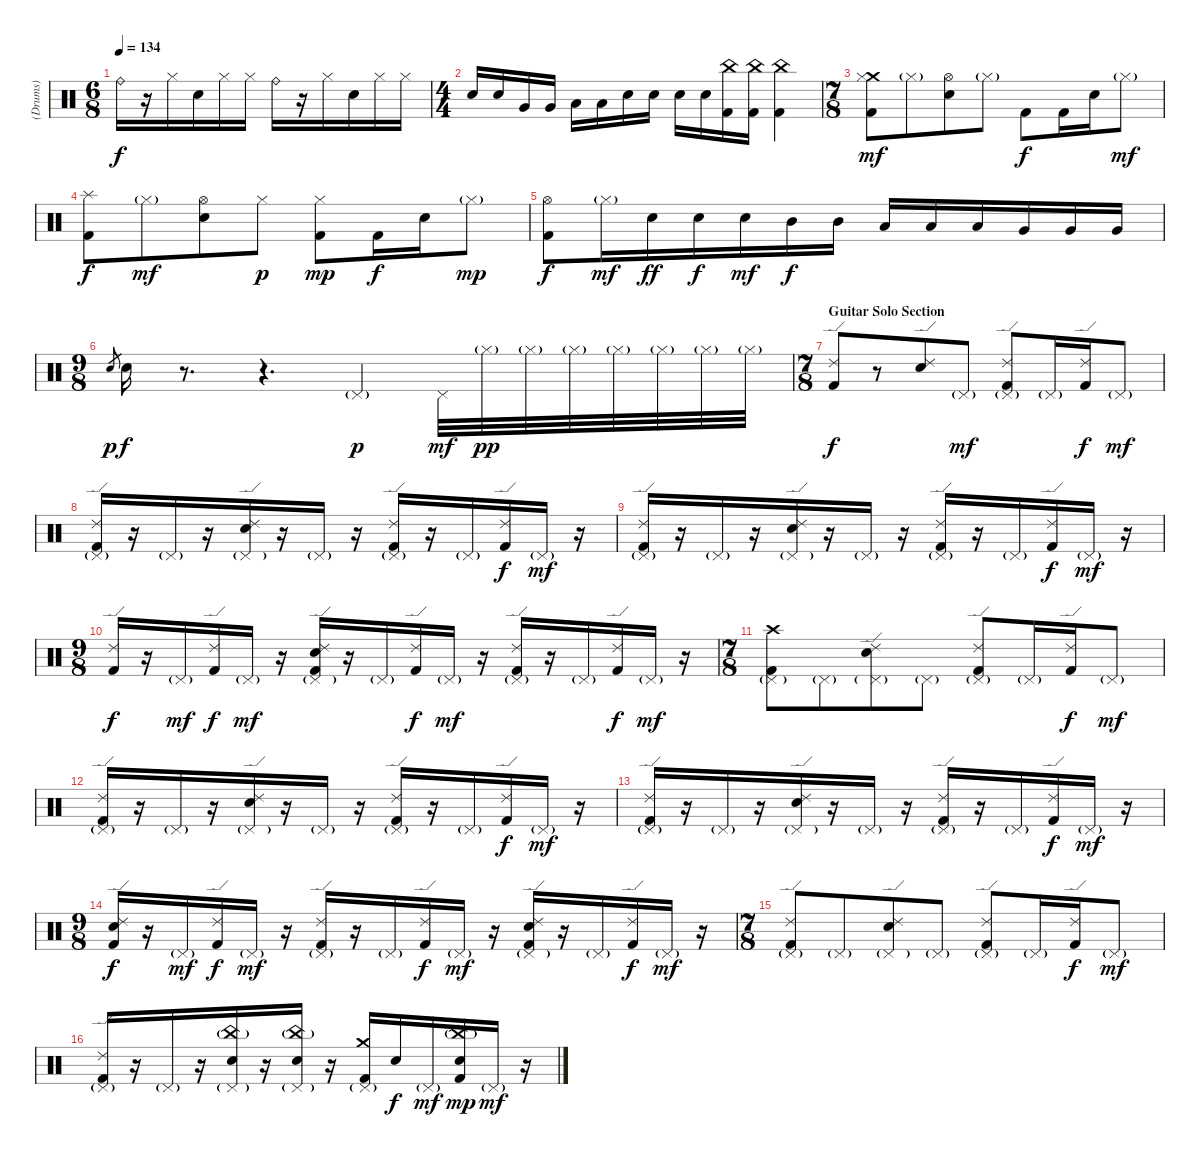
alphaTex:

\track ("(Drums)" "(Drums)") {instrument percussion}
\staff {score}
\articulation defaults
\ts (6 8)
\tempo 134
\clef neutral
\ks c "Ride (bell)".16{dy f}
r.16 "Hi-Hat (closed)".16 "Electric Snare (hit)".16 "Hi-Hat (closed)".16 "Hi-Hat (closed)".16 "Ride (bell)".16 r.16 "Hi-Hat (closed)".16 "Electric Snare (hit)".16 "Hi-Hat (closed)".16 "Hi-Hat (closed)".16 |
\ts (4 4)
"Electric Snare (hit)".16 "Electric Snare (hit)".16 "Very Low Tom (hit)".16 "Very Low Tom (hit)".16 "Low Tom (hit)".16 "Low Tom (hit)".16 "Electric Snare (hit)".16 "Electric Snare (hit)".16 "Electric Snare (hit)".16 "Electric Snare (hit)".16 ("China (hit)" "Kick (hit) 2").16 ("China (hit)" "Kick (hit) 2").16 ("China (hit)" "Kick (hit) 2").4 |
\ts (7 8)
("Crash medium (hit)" "Hi-Hat (closed)" "Kick (hit) 2").8{dy mf} "Hi-Hat (closed)"{g}.8 ("Hi-Hat (open)" "Electric Snare (hit)").8 "Hi-Hat (closed)"{g}.8 "Kick (hit) 2".8{dy f} "Kick (hit) 2".16 "Electric Snare (hit)".16 "Hi-Hat (closed)"{g}.8{dy mf} |
("Splash (hit)" "Kick (hit) 2").8{dy f} "Hi-Hat (closed)"{g}.8{dy mf} ("Hi-Hat (open)" "Electric Snare (hit)").8 "Hi-Hat (closed)".8{dy p} ("Hi-Hat (closed)" "Kick (hit) 2").8{dy mp} "Kick (hit) 2".16{dy f} "Electric Snare (hit)".16 "Hi-Hat (closed)"{g}.8{dy mp} |
("Hi-Hat (open)" "Kick (hit) 2").8{dy f} "Hi-Hat (closed)"{g}.16{dy mf} "Electric Snare (hit)".16{dy ff} "Electric Snare (hit)".16{dy f} "Electric Snare (hit)".16{dy mf} "Mid Tom (hit)".16{dy f} "Mid Tom (hit)".16 "Low Tom (hit)".16 "Low Tom (hit)".16 "Low Tom (hit)".16 "Very Low Tom (hit)".16 "Very Low Tom (hit)".16 "Very Low Tom (hit)".16 |
\ts (9 8)
"Electric Snare (hit)".8{gr dy p} "Electric Snare (hit)".16{dy f} r.8{d} r.4{d} "Pedal Hi-Hat (hit)"{g}.4{dy p} "Pedal Hi-Hat (hit)".32{dy mf} "Hi-Hat (closed)"{g}.32{dy pp} "Hi-Hat (closed)"{g}.32 "Hi-Hat (closed)"{g}.32 "Hi-Hat (closed)"{g}.32 "Hi-Hat (closed)"{g}.32 "Hi-Hat (closed)"{g}.32 "Hi-Hat (closed)"{g}.32 |
\ts (7 8)
\section ("" "Guitar Solo Section")
("Ride (edge) 2" "Kick (hit) 2").8{dy f volume 11} r.8 ("Ride (edge) 2" "Electric Snare (hit)").8 "Pedal Hi-Hat (hit)"{g}.8{dy mf} ("Ride (edge) 2" "Pedal Hi-Hat (hit)"{g} "Kick (hit) 2").8 "Pedal Hi-Hat (hit)"{g}.16 ("Ride (edge) 2" "Kick (hit) 2").16{dy f} "Pedal Hi-Hat (hit)"{g}.8{dy mf} |
("Ride (edge) 2" "Pedal Hi-Hat (hit)"{g} "Kick (hit) 2").16 r.16 "Pedal Hi-Hat (hit)"{g}.16 r.16 ("Ride (edge) 2" "Pedal Hi-Hat (hit)"{g} "Electric Snare (hit)").16 r.16 "Pedal Hi-Hat (hit)"{g}.16 r.16 ("Ride (edge) 2" "Pedal Hi-Hat (hit)"{g} "Kick (hit) 2").16 r.16 "Pedal Hi-Hat (hit)"{g}.16 ("Ride (edge) 2" "Kick (hit) 2").16{dy f} "Pedal Hi-Hat (hit)"{g}.16{dy mf} r.16 |
("Ride (edge) 2" "Pedal Hi-Hat (hit)"{g} "Kick (hit) 2").16 r.16 "Pedal Hi-Hat (hit)"{g}.16 r.16 ("Ride (edge) 2" "Pedal Hi-Hat (hit)"{g} "Electric Snare (hit)").16 r.16 "Pedal Hi-Hat (hit)"{g}.16 r.16 ("Ride (edge) 2" "Pedal Hi-Hat (hit)"{g} "Kick (hit) 2").16 r.16 "Pedal Hi-Hat (hit)"{g}.16 ("Ride (edge) 2" "Kick (hit) 2").16{dy f} "Pedal Hi-Hat (hit)"{g}.16{dy mf} r.16 |
\ts (9 8)
("Ride (edge) 2" "Kick (hit) 2").16{dy f} r.16 "Pedal Hi-Hat (hit)"{g}.16{dy mf} ("Ride (edge) 2" "Kick (hit) 2").16{dy f} "Pedal Hi-Hat (hit)"{g}.16{dy mf} r.16 ("Ride (edge) 2" "Pedal Hi-Hat (hit)"{g} "Electric Snare (hit)" "Kick (hit) 2").16 r.16 "Pedal Hi-Hat (hit)"{g}.16 ("Ride (edge) 2" "Kick (hit) 2").16{dy f} "Pedal Hi-Hat (hit)"{g}.16{dy mf} r.16 ("Ride (edge) 2" "Pedal Hi-Hat (hit)"{g} "Kick (hit) 2").16 r.16 "Pedal Hi-Hat (hit)"{g}.16 ("Ride (edge) 2" "Kick (hit) 2").16{dy f} "Pedal Hi-Hat (hit)"{g}.16{dy mf} r.16 |
\ts (7 8)
("Crash high (hit)" "Pedal Hi-Hat (hit)"{g} "Kick (hit) 2").8 "Pedal Hi-Hat (hit)"{g}.8 ("Ride (edge) 2" "Pedal Hi-Hat (hit)"{g} "Electric Snare (hit)").8 "Pedal Hi-Hat (hit)"{g}.8 ("Ride (edge) 2" "Pedal Hi-Hat (hit)"{g} "Kick (hit) 2").8 "Pedal Hi-Hat (hit)"{g}.16 ("Ride (edge) 2" "Kick (hit) 2").16{dy f} "Pedal Hi-Hat (hit)"{g}.8{dy mf} |
("Ride (edge) 2" "Pedal Hi-Hat (hit)"{g} "Kick (hit) 2").16 r.16 "Pedal Hi-Hat (hit)"{g}.16 r.16 ("Ride (edge) 2" "Pedal Hi-Hat (hit)"{g} "Electric Snare (hit)").16 r.16 "Pedal Hi-Hat (hit)"{g}.16 r.16 ("Ride (edge) 2" "Pedal Hi-Hat (hit)"{g} "Kick (hit) 2").16 r.16 "Pedal Hi-Hat (hit)"{g}.16 ("Ride (edge) 2" "Kick (hit) 2").16{dy f} "Pedal Hi-Hat (hit)"{g}.16{dy mf} r.16 |
("Ride (edge) 2" "Pedal Hi-Hat (hit)"{g} "Kick (hit) 2").16 r.16 "Pedal Hi-Hat (hit)"{g}.16 r.16 ("Ride (edge) 2" "Pedal Hi-Hat (hit)"{g} "Electric Snare (hit)").16 r.16 "Pedal Hi-Hat (hit)"{g}.16 r.16 ("Ride (edge) 2" "Pedal Hi-Hat (hit)"{g} "Kick (hit) 2").16 r.16 "Pedal Hi-Hat (hit)"{g}.16 ("Ride (edge) 2" "Kick (hit) 2").16{dy f} "Pedal Hi-Hat (hit)"{g}.16{dy mf} r.16 |
\ts (9 8)
("Ride (edge) 2" "Electric Snare (hit)" "Kick (hit) 2").16{dy f} r.16 "Pedal Hi-Hat (hit)"{g}.16{dy mf} ("Ride (edge) 2" "Kick (hit) 2").16{dy f} "Pedal Hi-Hat (hit)"{g}.16{dy mf} r.16 ("Ride (edge) 2" "Pedal Hi-Hat (hit)"{g} "Kick (hit) 2").16 r.16 "Pedal Hi-Hat (hit)"{g}.16 ("Ride (edge) 2" "Kick (hit) 2").16{dy f} "Pedal Hi-Hat (hit)"{g}.16{dy mf} r.16 ("Ride (edge) 2" "Pedal Hi-Hat (hit)"{g} "Electric Snare (hit)" "Kick (hit) 2").16 r.16 "Pedal Hi-Hat (hit)"{g}.16 ("Ride (edge) 2" "Kick (hit) 2").16{dy f} "Pedal Hi-Hat (hit)"{g}.16{dy mf} r.16 |
\ts (7 8)
("Ride (edge) 2" "Pedal Hi-Hat (hit)"{g} "Kick (hit) 2").8 "Pedal Hi-Hat (hit)"{g}.8 ("Ride (edge) 2" "Pedal Hi-Hat (hit)"{g} "Electric Snare (hit)").8 "Pedal Hi-Hat (hit)"{g}.8 ("Ride (edge) 2" "Pedal Hi-Hat (hit)"{g} "Kick (hit) 2").8 "Pedal Hi-Hat (hit)"{g}.16 ("Ride (edge) 2" "Kick (hit) 2").16{dy f} "Pedal Hi-Hat (hit)"{g}.8{dy mf} |
("Ride (edge) 2" "Pedal Hi-Hat (hit)"{g} "Kick (hit) 2").16 r.16 "Pedal Hi-Hat (hit)"{g}.16 r.16 ("China (hit)"{g} "Pedal Hi-Hat (hit)"{g} "Electric Snare (hit)").16 r.16 ("China (hit)"{g} "Pedal Hi-Hat (hit)"{g} "Electric Snare (hit)").16 r.16 ("Crash medium (hit)" "Pedal Hi-Hat (hit)"{g} "Kick (hit) 2").16 "Electric Snare (hit)".16{dy f} "Pedal Hi-Hat (hit)"{g}.16{dy mf} ("China (hit)"{g} "Electric Snare (hit)" "Kick (hit) 2").16{dy mp} "Pedal Hi-Hat (hit)"{g}.16{dy mf} r.16
